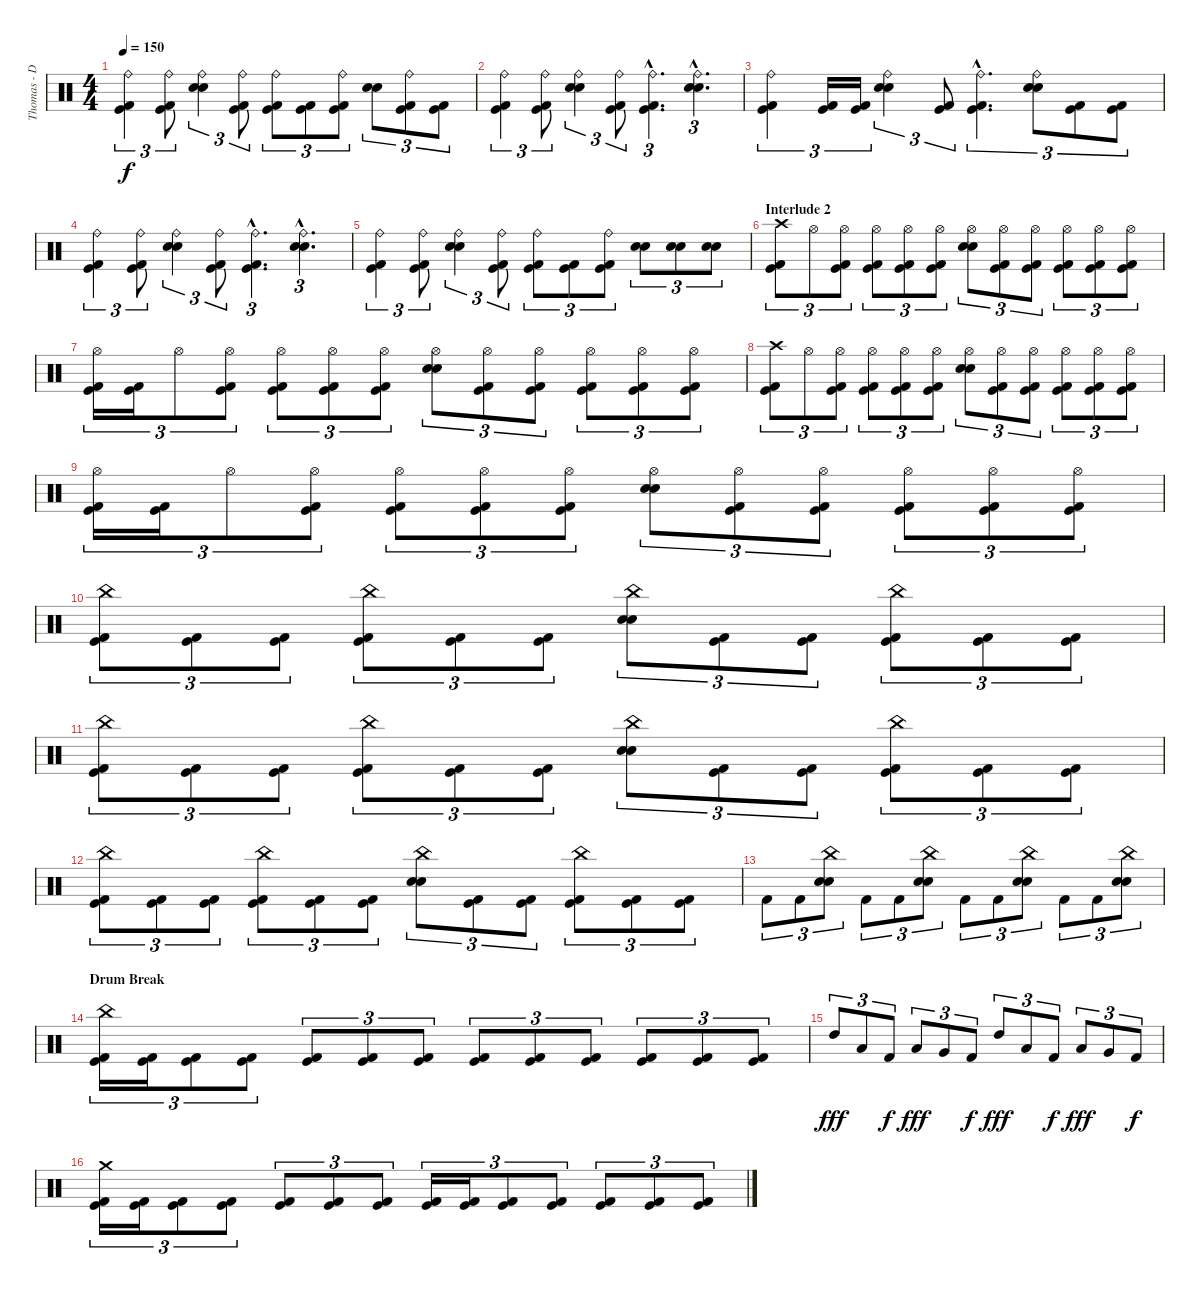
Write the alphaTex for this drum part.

\track ("Thomas - Drums" "Thomas - D") {instrument percussion}
\staff {score}
\articulation defaults
\ts (4 4)
\tempo 150
\clef neutral
\ks c
("Ride (bell)" "Kick (hit)" "Kick (hit) 2").4{tu (3 2) dy f} ("Ride (bell)" "Kick (hit)" "Kick (hit) 2").8{tu (3 2)} ("Ride (bell)" "Electric Snare (hit)" "Electric Snare (hit)").4{tu (3 2)} ("Ride (bell)" "Kick (hit)" "Kick (hit) 2").8{tu (3 2)} ("Ride (bell)" "Kick (hit)" "Kick (hit) 2").8{tu (3 2)} ("Kick (hit)" "Kick (hit) 2").8{tu (3 2)} ("Ride (bell)" "Kick (hit)" "Kick (hit) 2").8{tu (3 2)} ("Electric Snare (hit)" "Electric Snare (hit)").8{tu (3 2)} ("Ride (bell)" "Kick (hit)" "Kick (hit) 2").8{tu (3 2)} ("Kick (hit)" "Kick (hit) 2").8{tu (3 2)} |
("Ride (bell)" "Kick (hit)" "Kick (hit) 2").4{tu (3 2)} ("Ride (bell)" "Kick (hit)" "Kick (hit) 2").8{tu (3 2)} ("Ride (bell)" "Electric Snare (hit)" "Electric Snare (hit)").4{tu (3 2)} ("Ride (bell)" "Kick (hit)" "Kick (hit) 2").8{tu (3 2)} ("Ride (bell)"{hac} "Kick (hit)"{hac} "Kick (hit) 2"{hac}).4{d tu (3 2)} ("Ride (bell)"{hac} "Electric Snare (hit)"{hac} "Electric Snare (hit)"{hac}).4{d tu (3 2)} |
("Ride (bell)" "Kick (hit)" "Kick (hit) 2").4{tu (3 2)} ("Kick (hit)" "Kick (hit) 2").16{tu (3 2)} ("Kick (hit)" "Kick (hit) 2").16{tu (3 2)} ("Ride (bell)" "Electric Snare (hit)" "Electric Snare (hit)").4{tu (3 2)} ("Kick (hit)" "Kick (hit) 2").8{tu (3 2)} ("Ride (bell)"{hac} "Kick (hit)"{hac} "Kick (hit) 2"{hac}).4{d tu (3 2)} ("Ride (bell)" "Electric Snare (hit)" "Electric Snare (hit)").8{tu (3 2)} ("Kick (hit)" "Kick (hit) 2").8{tu (3 2)} ("Kick (hit)" "Kick (hit) 2").8{tu (3 2)} |
("Ride (bell)" "Kick (hit)" "Kick (hit) 2").4{tu (3 2)} ("Ride (bell)" "Kick (hit)" "Kick (hit) 2").8{tu (3 2)} ("Ride (bell)" "Electric Snare (hit)" "Electric Snare (hit)").4{tu (3 2)} ("Ride (bell)" "Kick (hit)" "Kick (hit) 2").8{tu (3 2)} ("Ride (bell)"{hac} "Kick (hit)"{hac} "Kick (hit) 2"{hac}).4{d tu (3 2)} ("Ride (bell)"{hac} "Electric Snare (hit)"{hac} "Electric Snare (hit)"{hac}).4{d tu (3 2)} |
("Ride (bell)" "Kick (hit)" "Kick (hit) 2").4{tu (3 2)} ("Ride (bell)" "Kick (hit)" "Kick (hit) 2").8{tu (3 2)} ("Ride (bell)" "Electric Snare (hit)" "Electric Snare (hit)").4{tu (3 2)} ("Ride (bell)" "Kick (hit)" "Kick (hit) 2").8{tu (3 2)} ("Ride (bell)" "Kick (hit)" "Kick (hit) 2").8{tu (3 2)} ("Kick (hit)" "Kick (hit) 2").8{tu (3 2)} ("Ride (bell)" "Kick (hit)" "Kick (hit) 2").8{tu (3 2)} ("Electric Snare (hit)" "Electric Snare (hit)").8{tu (3 2)} ("Electric Snare (hit)" "Electric Snare (hit)").8{tu (3 2)} ("Electric Snare (hit)" "Electric Snare (hit)").8{tu (3 2)} |
\section ("" "Interlude 2")
("Crash high (hit)" "Kick (hit)" "Kick (hit) 2").8{tu (3 2)} "Hi-Hat (open)".8{tu (3 2)} ("Hi-Hat (open)" "Kick (hit)" "Kick (hit) 2").8{tu (3 2)} ("Hi-Hat (open)" "Kick (hit)" "Kick (hit) 2").8{tu (3 2)} ("Hi-Hat (open)" "Kick (hit)" "Kick (hit) 2").8{tu (3 2)} ("Hi-Hat (open)" "Kick (hit)" "Kick (hit) 2").8{tu (3 2)} ("Hi-Hat (open)" "Electric Snare (hit)" "Electric Snare (hit)").8{tu (3 2)} ("Hi-Hat (open)" "Kick (hit)" "Kick (hit) 2").8{tu (3 2)} ("Hi-Hat (open)" "Kick (hit)" "Kick (hit) 2").8{tu (3 2)} ("Hi-Hat (open)" "Kick (hit)" "Kick (hit) 2").8{tu (3 2)} ("Hi-Hat (open)" "Kick (hit)" "Kick (hit) 2").8{tu (3 2)} ("Hi-Hat (open)" "Kick (hit)" "Kick (hit) 2").8{tu (3 2)} |
("Hi-Hat (open)" "Kick (hit)" "Kick (hit) 2").16{tu (3 2)} ("Kick (hit)" "Kick (hit) 2").16{tu (3 2)} "Hi-Hat (open)".8{tu (3 2)} ("Hi-Hat (open)" "Kick (hit)" "Kick (hit) 2").8{tu (3 2)} ("Hi-Hat (open)" "Kick (hit)" "Kick (hit) 2").8{tu (3 2)} ("Hi-Hat (open)" "Kick (hit)" "Kick (hit) 2").8{tu (3 2)} ("Hi-Hat (open)" "Kick (hit)" "Kick (hit) 2").8{tu (3 2)} ("Hi-Hat (open)" "Electric Snare (hit)" "Electric Snare (hit)").8{tu (3 2)} ("Hi-Hat (open)" "Kick (hit)" "Kick (hit) 2").8{tu (3 2)} ("Hi-Hat (open)" "Kick (hit)" "Kick (hit) 2").8{tu (3 2)} ("Hi-Hat (open)" "Kick (hit)" "Kick (hit) 2").8{tu (3 2)} ("Hi-Hat (open)" "Kick (hit)" "Kick (hit) 2").8{tu (3 2)} ("Hi-Hat (open)" "Kick (hit)" "Kick (hit) 2").8{tu (3 2)} |
("Crash high (hit)" "Kick (hit)" "Kick (hit) 2").8{tu (3 2)} "Hi-Hat (open)".8{tu (3 2)} ("Hi-Hat (open)" "Kick (hit)" "Kick (hit) 2").8{tu (3 2)} ("Hi-Hat (open)" "Kick (hit)" "Kick (hit) 2").8{tu (3 2)} ("Hi-Hat (open)" "Kick (hit)" "Kick (hit) 2").8{tu (3 2)} ("Hi-Hat (open)" "Kick (hit)" "Kick (hit) 2").8{tu (3 2)} ("Hi-Hat (open)" "Electric Snare (hit)" "Electric Snare (hit)").8{tu (3 2)} ("Hi-Hat (open)" "Kick (hit)" "Kick (hit) 2").8{tu (3 2)} ("Hi-Hat (open)" "Kick (hit)" "Kick (hit) 2").8{tu (3 2)} ("Hi-Hat (open)" "Kick (hit)" "Kick (hit) 2").8{tu (3 2)} ("Hi-Hat (open)" "Kick (hit)" "Kick (hit) 2").8{tu (3 2)} ("Hi-Hat (open)" "Kick (hit)" "Kick (hit) 2").8{tu (3 2)} |
("Hi-Hat (open)" "Kick (hit)" "Kick (hit) 2").16{tu (3 2)} ("Kick (hit)" "Kick (hit) 2").16{tu (3 2)} "Hi-Hat (open)".8{tu (3 2)} ("Hi-Hat (open)" "Kick (hit)" "Kick (hit) 2").8{tu (3 2)} ("Hi-Hat (open)" "Kick (hit)" "Kick (hit) 2").8{tu (3 2)} ("Hi-Hat (open)" "Kick (hit)" "Kick (hit) 2").8{tu (3 2)} ("Hi-Hat (open)" "Kick (hit)" "Kick (hit) 2").8{tu (3 2)} ("Hi-Hat (open)" "Electric Snare (hit)" "Electric Snare (hit)").8{tu (3 2)} ("Hi-Hat (open)" "Kick (hit)" "Kick (hit) 2").8{tu (3 2)} ("Hi-Hat (open)" "Kick (hit)" "Kick (hit) 2").8{tu (3 2)} ("Hi-Hat (open)" "Kick (hit)" "Kick (hit) 2").8{tu (3 2)} ("Hi-Hat (open)" "Kick (hit)" "Kick (hit) 2").8{tu (3 2)} ("Hi-Hat (open)" "Kick (hit)" "Kick (hit) 2").8{tu (3 2)} |
("China (hit)" "Kick (hit)" "Kick (hit) 2").8{tu (3 2)} ("Kick (hit)" "Kick (hit) 2").8{tu (3 2)} ("Kick (hit)" "Kick (hit) 2").8{tu (3 2)} ("China (hit)" "Kick (hit)" "Kick (hit) 2").8{tu (3 2)} ("Kick (hit)" "Kick (hit) 2").8{tu (3 2)} ("Kick (hit)" "Kick (hit) 2").8{tu (3 2)} ("China (hit)" "Electric Snare (hit)" "Electric Snare (hit)").8{tu (3 2)} ("Kick (hit)" "Kick (hit) 2").8{tu (3 2)} ("Kick (hit)" "Kick (hit) 2").8{tu (3 2)} ("China (hit)" "Kick (hit)" "Kick (hit) 2").8{tu (3 2)} ("Kick (hit)" "Kick (hit) 2").8{tu (3 2)} ("Kick (hit)" "Kick (hit) 2").8{tu (3 2)} |
("China (hit)" "Kick (hit)" "Kick (hit) 2").8{tu (3 2)} ("Kick (hit)" "Kick (hit) 2").8{tu (3 2)} ("Kick (hit)" "Kick (hit) 2").8{tu (3 2)} ("China (hit)" "Kick (hit)" "Kick (hit) 2").8{tu (3 2)} ("Kick (hit)" "Kick (hit) 2").8{tu (3 2)} ("Kick (hit)" "Kick (hit) 2").8{tu (3 2)} ("China (hit)" "Electric Snare (hit)" "Electric Snare (hit)").8{tu (3 2)} ("Kick (hit)" "Kick (hit) 2").8{tu (3 2)} ("Kick (hit)" "Kick (hit) 2").8{tu (3 2)} ("China (hit)" "Kick (hit)" "Kick (hit) 2").8{tu (3 2)} ("Kick (hit)" "Kick (hit) 2").8{tu (3 2)} ("Kick (hit)" "Kick (hit) 2").8{tu (3 2)} |
("China (hit)" "Kick (hit)" "Kick (hit) 2").8{tu (3 2)} ("Kick (hit)" "Kick (hit) 2").8{tu (3 2)} ("Kick (hit)" "Kick (hit) 2").8{tu (3 2)} ("China (hit)" "Kick (hit)" "Kick (hit) 2").8{tu (3 2)} ("Kick (hit)" "Kick (hit) 2").8{tu (3 2)} ("Kick (hit)" "Kick (hit) 2").8{tu (3 2)} ("China (hit)" "Electric Snare (hit)" "Electric Snare (hit)").8{tu (3 2)} ("Kick (hit)" "Kick (hit) 2").8{tu (3 2)} ("Kick (hit)" "Kick (hit) 2").8{tu (3 2)} ("China (hit)" "Kick (hit)" "Kick (hit) 2").8{tu (3 2)} ("Kick (hit)" "Kick (hit) 2").8{tu (3 2)} ("Kick (hit)" "Kick (hit) 2").8{tu (3 2)} |
"Kick (hit) 2".8{tu (3 2)} "Kick (hit) 2".8{tu (3 2)} ("China (hit)" "Electric Snare (hit)" "Electric Snare (hit)").8{tu (3 2)} "Kick (hit) 2".8{tu (3 2)} "Kick (hit) 2".8{tu (3 2)} ("China (hit)" "Electric Snare (hit)" "Electric Snare (hit)").8{tu (3 2)} "Kick (hit) 2".8{tu (3 2)} "Kick (hit) 2".8{tu (3 2)} ("China (hit)" "Electric Snare (hit)" "Electric Snare (hit)").8{tu (3 2)} "Kick (hit) 2".8{tu (3 2)} "Kick (hit) 2".8{tu (3 2)} ("China (hit)" "Electric Snare (hit)" "Electric Snare (hit)").8{tu (3 2)} |
\section ("" "Drum Break")
("China (hit)" "Kick (hit)" "Kick (hit) 2").16{tu (3 2)} ("Kick (hit)" "Kick (hit) 2").16{tu (3 2)} ("Kick (hit)" "Kick (hit) 2").8{tu (3 2)} ("Kick (hit)" "Kick (hit) 2").8{tu (3 2)} ("Kick (hit)" "Kick (hit) 2").8{tu (3 2)} ("Kick (hit)" "Kick (hit) 2").8{tu (3 2)} ("Kick (hit)" "Kick (hit) 2").8{tu (3 2)} ("Kick (hit)" "Kick (hit) 2").8{tu (3 2)} ("Kick (hit)" "Kick (hit) 2").8{tu (3 2)} ("Kick (hit)" "Kick (hit) 2").8{tu (3 2)} ("Kick (hit)" "Kick (hit) 2").8{tu (3 2)} ("Kick (hit)" "Kick (hit) 2").8{tu (3 2)} ("Kick (hit)" "Kick (hit) 2").8{tu (3 2)} |
"High Tom (hit)".8{tu (3 2) dy fff} "Low Tom (hit)".8{tu (3 2)} "Kick (hit) 2".8{tu (3 2) dy f} "Low Tom (hit)".8{tu (3 2) dy fff} "Very Low Tom (hit)".8{tu (3 2)} "Kick (hit) 2".8{tu (3 2) dy f} "High Tom (hit)".8{tu (3 2) dy fff} "Low Tom (hit)".8{tu (3 2)} "Kick (hit) 2".8{tu (3 2) dy f} "Low Tom (hit)".8{tu (3 2) dy fff} "Very Low Tom (hit)".8{tu (3 2)} "Kick (hit) 2".8{tu (3 2) dy f} |
("Crash medium (hit)" "Kick (hit)" "Kick (hit) 2").16{tu (3 2)} ("Kick (hit)" "Kick (hit) 2").16{tu (3 2)} ("Kick (hit)" "Kick (hit) 2").8{tu (3 2)} ("Kick (hit)" "Kick (hit) 2").8{tu (3 2)} ("Kick (hit)" "Kick (hit) 2").8{tu (3 2)} ("Kick (hit)" "Kick (hit) 2").8{tu (3 2)} ("Kick (hit)" "Kick (hit) 2").8{tu (3 2)} ("Kick (hit)" "Kick (hit) 2").16{tu (3 2)} ("Kick (hit)" "Kick (hit) 2").16{tu (3 2)} ("Kick (hit)" "Kick (hit) 2").8{tu (3 2)} ("Kick (hit)" "Kick (hit) 2").8{tu (3 2)} ("Kick (hit)" "Kick (hit) 2").8{tu (3 2)} ("Kick (hit)" "Kick (hit) 2").8{tu (3 2)} ("Kick (hit)" "Kick (hit) 2").8{tu (3 2)}
